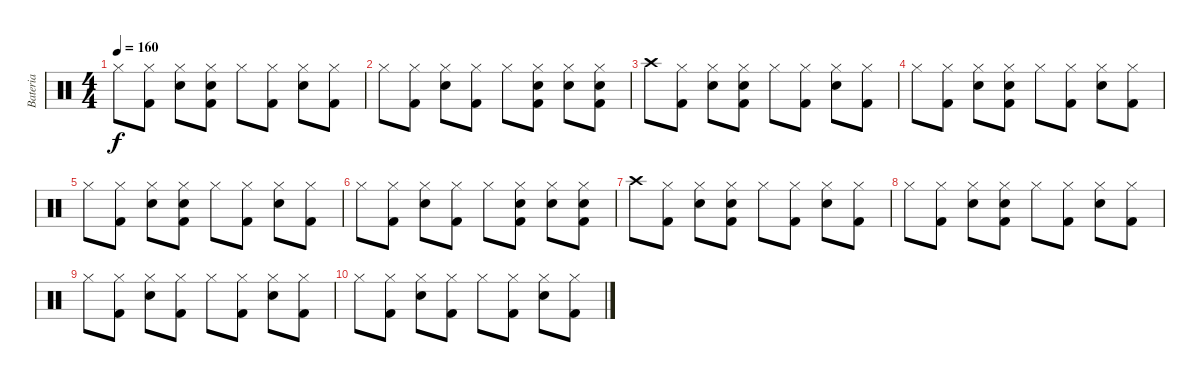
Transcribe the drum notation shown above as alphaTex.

\track ("Bateria" "Bateria") {instrument percussion}
\staff {score}
\articulation defaults
\ts (4 4)
\tempo 160
\clef neutral
\ks c "Hi-Hat (closed)".8{dy f}
("Hi-Hat (closed)" "Kick (hit) 2").8 ("Hi-Hat (closed)" "Snare (hit) 2").8 ("Hi-Hat (closed)" "Snare (hit) 2" "Kick (hit) 2").8 "Hi-Hat (closed)".8 ("Hi-Hat (closed)" "Kick (hit) 2").8 ("Hi-Hat (closed)" "Snare (hit) 2").8 ("Hi-Hat (closed)" "Kick (hit) 2").8 |
"Hi-Hat (closed)".8 ("Hi-Hat (closed)" "Kick (hit) 2").8 ("Hi-Hat (closed)" "Snare (hit) 2").8 ("Hi-Hat (closed)" "Kick (hit) 2").8 "Hi-Hat (closed)".8 ("Hi-Hat (closed)" "Snare (hit) 2" "Kick (hit) 2").8 ("Hi-Hat (closed)" "Snare (hit) 2").8 ("Hi-Hat (closed)" "Snare (hit) 2" "Kick (hit) 2").8 |
"Crash high (hit)".8 ("Hi-Hat (closed)" "Kick (hit) 2").8 ("Hi-Hat (closed)" "Snare (hit) 2").8 ("Hi-Hat (closed)" "Snare (hit) 2" "Kick (hit) 2").8 "Hi-Hat (closed)".8 ("Hi-Hat (closed)" "Kick (hit) 2").8 ("Hi-Hat (closed)" "Snare (hit) 2").8 ("Hi-Hat (closed)" "Kick (hit) 2").8 |
"Hi-Hat (closed)".8 ("Hi-Hat (closed)" "Kick (hit) 2").8 ("Hi-Hat (closed)" "Snare (hit) 2").8 ("Hi-Hat (closed)" "Snare (hit) 2" "Kick (hit) 2").8 "Hi-Hat (closed)".8 ("Hi-Hat (closed)" "Kick (hit) 2").8 ("Hi-Hat (closed)" "Snare (hit) 2").8 ("Hi-Hat (closed)" "Kick (hit) 2").8 |
"Hi-Hat (closed)".8 ("Hi-Hat (closed)" "Kick (hit) 2").8 ("Hi-Hat (closed)" "Snare (hit) 2").8 ("Hi-Hat (closed)" "Snare (hit) 2" "Kick (hit) 2").8 "Hi-Hat (closed)".8 ("Hi-Hat (closed)" "Kick (hit) 2").8 ("Hi-Hat (closed)" "Snare (hit) 2").8 ("Hi-Hat (closed)" "Kick (hit) 2").8 |
"Hi-Hat (closed)".8 ("Hi-Hat (closed)" "Kick (hit) 2").8 ("Hi-Hat (closed)" "Snare (hit) 2").8 ("Hi-Hat (closed)" "Kick (hit) 2").8 "Hi-Hat (closed)".8 ("Hi-Hat (closed)" "Snare (hit) 2" "Kick (hit) 2").8 ("Hi-Hat (closed)" "Snare (hit) 2").8 ("Hi-Hat (closed)" "Snare (hit) 2" "Kick (hit) 2").8 |
"Crash high (hit)".8 ("Hi-Hat (closed)" "Kick (hit) 2").8 ("Hi-Hat (closed)" "Snare (hit) 2").8 ("Hi-Hat (closed)" "Snare (hit) 2" "Kick (hit) 2").8 "Hi-Hat (closed)".8 ("Hi-Hat (closed)" "Kick (hit) 2").8 ("Hi-Hat (closed)" "Snare (hit) 2").8 ("Hi-Hat (closed)" "Kick (hit) 2").8 |
"Hi-Hat (closed)".8 ("Hi-Hat (closed)" "Kick (hit) 2").8 ("Hi-Hat (closed)" "Snare (hit) 2").8 ("Hi-Hat (closed)" "Snare (hit) 2" "Kick (hit) 2").8 "Hi-Hat (closed)".8 ("Hi-Hat (closed)" "Kick (hit) 2").8 ("Hi-Hat (closed)" "Snare (hit) 2").8 ("Hi-Hat (closed)" "Kick (hit) 2").8 |
"Hi-Hat (closed)".8 ("Hi-Hat (closed)" "Kick (hit) 2").8 ("Hi-Hat (closed)" "Snare (hit) 2").8 ("Hi-Hat (closed)" "Kick (hit) 2").8 "Hi-Hat (closed)".8 ("Hi-Hat (closed)" "Kick (hit) 2").8 ("Hi-Hat (closed)" "Snare (hit) 2").8 ("Hi-Hat (closed)" "Kick (hit) 2").8 |
"Hi-Hat (closed)".8 ("Hi-Hat (closed)" "Kick (hit) 2").8 ("Hi-Hat (closed)" "Snare (hit) 2").8 ("Hi-Hat (closed)" "Kick (hit) 2").8 "Hi-Hat (closed)".8 ("Hi-Hat (closed)" "Kick (hit) 2").8 ("Hi-Hat (closed)" "Snare (hit) 2").8 ("Hi-Hat (closed)" "Kick (hit) 2").8
